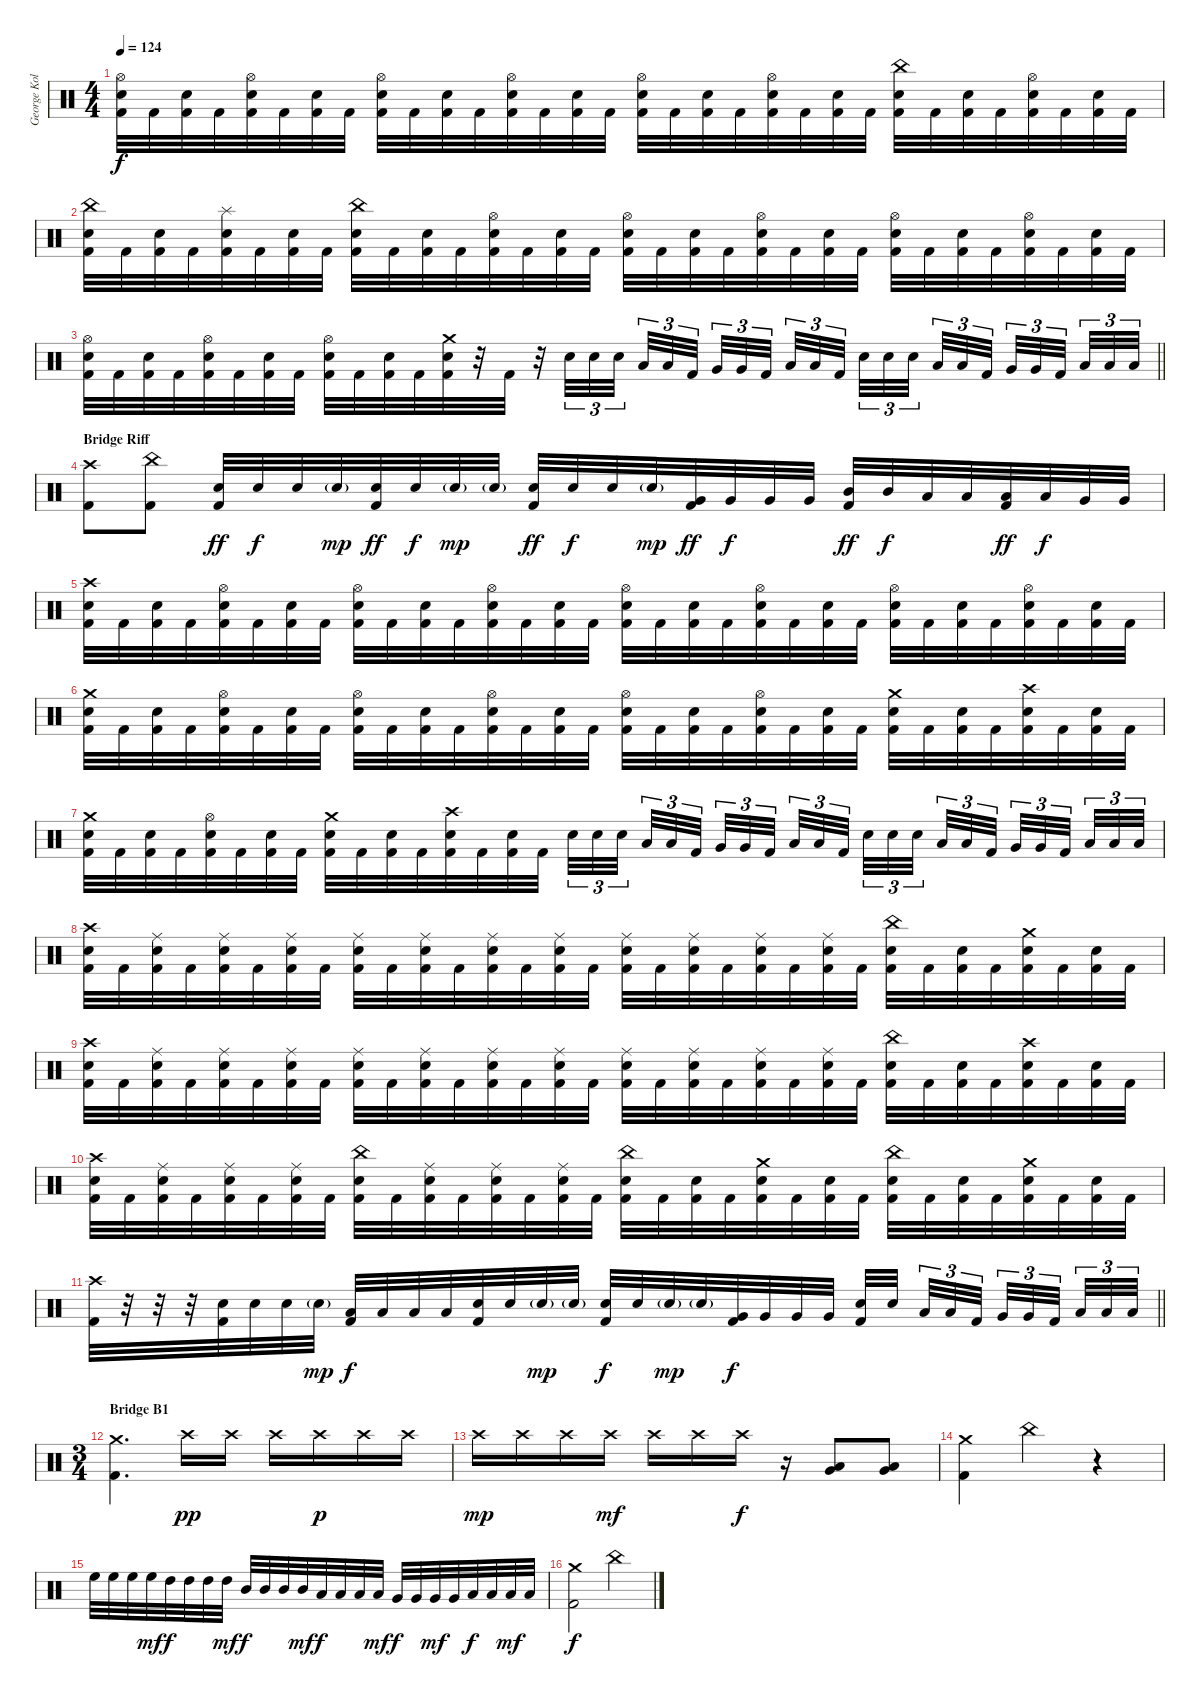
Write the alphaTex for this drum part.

\track ("George Kollias" "George Kol") {instrument percussion}
\staff {score}
\articulation defaults
\ts (4 4)
\tempo 124
\clef neutral
\ks c
("Hi-Hat (open)" "Electric Snare (hit)" "Kick (hit) 2").32{dy f} "Kick (hit) 2".32 ("Electric Snare (hit)" "Kick (hit) 2").32 "Kick (hit) 2".32 ("Hi-Hat (open)" "Electric Snare (hit)" "Kick (hit) 2").32 "Kick (hit) 2".32 ("Electric Snare (hit)" "Kick (hit) 2").32 "Kick (hit) 2".32 ("Hi-Hat (open)" "Electric Snare (hit)" "Kick (hit) 2").32 "Kick (hit) 2".32 ("Electric Snare (hit)" "Kick (hit) 2").32 "Kick (hit) 2".32 ("Hi-Hat (open)" "Electric Snare (hit)" "Kick (hit) 2").32 "Kick (hit) 2".32 ("Electric Snare (hit)" "Kick (hit) 2").32 "Kick (hit) 2".32 ("Hi-Hat (open)" "Electric Snare (hit)" "Kick (hit) 2").32 "Kick (hit) 2".32 ("Electric Snare (hit)" "Kick (hit) 2").32 "Kick (hit) 2".32 ("Hi-Hat (open)" "Electric Snare (hit)" "Kick (hit) 2").32 "Kick (hit) 2".32 ("Electric Snare (hit)" "Kick (hit) 2").32 "Kick (hit) 2".32 ("China (hit)" "Electric Snare (hit)" "Kick (hit) 2").32 "Kick (hit) 2".32 ("Electric Snare (hit)" "Kick (hit) 2").32 "Kick (hit) 2".32 ("Hi-Hat (open)" "Electric Snare (hit)" "Kick (hit) 2").32 "Kick (hit) 2".32 ("Electric Snare (hit)" "Kick (hit) 2").32 "Kick (hit) 2".32 |
("China (hit)" "Electric Snare (hit)" "Kick (hit) 2").32 "Kick (hit) 2".32 ("Electric Snare (hit)" "Kick (hit) 2").32 "Kick (hit) 2".32 ("Splash (hit)" "Electric Snare (hit)" "Kick (hit) 2").32 "Kick (hit) 2".32 ("Electric Snare (hit)" "Kick (hit) 2").32 "Kick (hit) 2".32 ("China (hit)" "Electric Snare (hit)" "Kick (hit) 2").32 "Kick (hit) 2".32 ("Electric Snare (hit)" "Kick (hit) 2").32 "Kick (hit) 2".32 ("Hi-Hat (open)" "Electric Snare (hit)" "Kick (hit) 2").32 "Kick (hit) 2".32 ("Electric Snare (hit)" "Kick (hit) 2").32 "Kick (hit) 2".32 ("Hi-Hat (open)" "Electric Snare (hit)" "Kick (hit) 2").32 "Kick (hit) 2".32 ("Electric Snare (hit)" "Kick (hit) 2").32 "Kick (hit) 2".32 ("Hi-Hat (open)" "Electric Snare (hit)" "Kick (hit) 2").32 "Kick (hit) 2".32 ("Electric Snare (hit)" "Kick (hit) 2").32 "Kick (hit) 2".32 ("Hi-Hat (open)" "Electric Snare (hit)" "Kick (hit) 2").32 "Kick (hit) 2".32 ("Electric Snare (hit)" "Kick (hit) 2").32 "Kick (hit) 2".32 ("Hi-Hat (open)" "Electric Snare (hit)" "Kick (hit) 2").32 "Kick (hit) 2".32 ("Electric Snare (hit)" "Kick (hit) 2").32 "Kick (hit) 2".32 |
\barLineRight lightlight
("Hi-Hat (open)" "Electric Snare (hit)" "Kick (hit) 2").32 "Kick (hit) 2".32 ("Electric Snare (hit)" "Kick (hit) 2").32 "Kick (hit) 2".32 ("Hi-Hat (open)" "Electric Snare (hit)" "Kick (hit) 2").32 "Kick (hit) 2".32 ("Electric Snare (hit)" "Kick (hit) 2").32 "Kick (hit) 2".32 ("Hi-Hat (open)" "Electric Snare (hit)" "Kick (hit) 2").32 "Kick (hit) 2".32 ("Electric Snare (hit)" "Kick (hit) 2").32 "Kick (hit) 2".32 ("Crash medium (hit)" "Electric Snare (hit)" "Kick (hit) 2").32 r.32 "Kick (hit) 2".32 r.32 "Electric Snare (hit)".32{tu (3 2)} "Electric Snare (hit)".32{tu (3 2)} "Electric Snare (hit)".32{tu (3 2) beam splitsecondary} "Low Tom (hit)".32{tu (3 2)} "Low Tom (hit)".32{tu (3 2)} "Kick (hit) 2".32{tu (3 2) beam splitsecondary} "Very Low Tom (hit)".32{tu (3 2)} "Very Low Tom (hit)".32{tu (3 2)} "Kick (hit) 2".32{tu (3 2) beam splitsecondary} "Low Floor Tom (hit)".32{tu (3 2)} "Low Floor Tom (hit)".32{tu (3 2)} "Kick (hit) 2".32{tu (3 2)} "Electric Snare (hit)".32{tu (3 2)} "Electric Snare (hit)".32{tu (3 2)} "Electric Snare (hit)".32{tu (3 2) beam splitsecondary} "Low Tom (hit)".32{tu (3 2)} "Low Tom (hit)".32{tu (3 2)} "Kick (hit) 2".32{tu (3 2) beam splitsecondary} "Very Low Tom (hit)".32{tu (3 2)} "Very Low Tom (hit)".32{tu (3 2)} "Kick (hit) 2".32{tu (3 2) beam splitsecondary} "Low Floor Tom (hit)".32{tu (3 2)} "Low Floor Tom (hit)".32{tu (3 2)} "Low Floor Tom (hit)".32{tu (3 2)} |
\section ("" "Bridge Riff ")
("Crash high (hit)" "Kick (hit) 2").8 ("China (hit)" "Kick (hit) 2").8 ("Electric Snare (hit)" "Kick (hit) 2").32{dy ff} "Electric Snare (hit)".32{dy f} "Electric Snare (hit)".32 "Electric Snare (hit)"{g}.32{dy mp} ("Electric Snare (hit)" "Kick (hit) 2").32{dy ff} "Electric Snare (hit)".32{dy f} "Electric Snare (hit)"{g}.32{dy mp} "Electric Snare (hit)"{g}.32 ("Electric Snare (hit)" "Kick (hit) 2").32{dy ff} "Electric Snare (hit)".32{dy f} "Electric Snare (hit)".32 "Electric Snare (hit)"{g}.32{dy mp} ("Very Low Tom (hit)" "Kick (hit) 2").32{dy ff} "Very Low Tom (hit)".32{dy f} "Very Low Tom (hit)".32 "Very Low Tom (hit)".32 ("Mid Tom (hit)" "Kick (hit) 2").32{dy ff} "Mid Tom (hit)".32{dy f} "Low Tom (hit)".32 "Low Tom (hit)".32 ("Low Tom (hit)" "Kick (hit) 2").32{dy ff} "Low Tom (hit)".32{dy f} "Very Low Tom (hit)".32 "Very Low Tom (hit)".32 |
("Crash high (hit)" "Electric Snare (hit)" "Kick (hit) 2").32 "Kick (hit) 2".32 ("Electric Snare (hit)" "Kick (hit) 2").32 "Kick (hit) 2".32 ("Hi-Hat (open)" "Electric Snare (hit)" "Kick (hit) 2").32 "Kick (hit) 2".32 ("Electric Snare (hit)" "Kick (hit) 2").32 "Kick (hit) 2".32 ("Hi-Hat (open)" "Electric Snare (hit)" "Kick (hit) 2").32 "Kick (hit) 2".32 ("Electric Snare (hit)" "Kick (hit) 2").32 "Kick (hit) 2".32 ("Hi-Hat (open)" "Electric Snare (hit)" "Kick (hit) 2").32 "Kick (hit) 2".32 ("Electric Snare (hit)" "Kick (hit) 2").32 "Kick (hit) 2".32 ("Hi-Hat (open)" "Electric Snare (hit)" "Kick (hit) 2").32 "Kick (hit) 2".32 ("Electric Snare (hit)" "Kick (hit) 2").32 "Kick (hit) 2".32 ("Hi-Hat (open)" "Electric Snare (hit)" "Kick (hit) 2").32 "Kick (hit) 2".32 ("Electric Snare (hit)" "Kick (hit) 2").32 "Kick (hit) 2".32 ("Hi-Hat (open)" "Electric Snare (hit)" "Kick (hit) 2").32 "Kick (hit) 2".32 ("Electric Snare (hit)" "Kick (hit) 2").32 "Kick (hit) 2".32 ("Hi-Hat (open)" "Electric Snare (hit)" "Kick (hit) 2").32 "Kick (hit) 2".32 ("Electric Snare (hit)" "Kick (hit) 2").32 "Kick (hit) 2".32 |
("Crash medium (hit)" "Electric Snare (hit)" "Kick (hit) 2").32 "Kick (hit) 2".32 ("Electric Snare (hit)" "Kick (hit) 2").32 "Kick (hit) 2".32 ("Hi-Hat (open)" "Electric Snare (hit)" "Kick (hit) 2").32 "Kick (hit) 2".32 ("Electric Snare (hit)" "Kick (hit) 2").32 "Kick (hit) 2".32 ("Hi-Hat (open)" "Electric Snare (hit)" "Kick (hit) 2").32 "Kick (hit) 2".32 ("Electric Snare (hit)" "Kick (hit) 2").32 "Kick (hit) 2".32 ("Hi-Hat (open)" "Electric Snare (hit)" "Kick (hit) 2").32 "Kick (hit) 2".32 ("Electric Snare (hit)" "Kick (hit) 2").32 "Kick (hit) 2".32 ("Hi-Hat (open)" "Electric Snare (hit)" "Kick (hit) 2").32 "Kick (hit) 2".32 ("Electric Snare (hit)" "Kick (hit) 2").32 "Kick (hit) 2".32 ("Hi-Hat (open)" "Electric Snare (hit)" "Kick (hit) 2").32 "Kick (hit) 2".32 ("Electric Snare (hit)" "Kick (hit) 2").32 "Kick (hit) 2".32 ("Crash medium (hit)" "Electric Snare (hit)" "Kick (hit) 2").32 "Kick (hit) 2".32 ("Electric Snare (hit)" "Kick (hit) 2").32 "Kick (hit) 2".32 ("Crash high (hit)" "Electric Snare (hit)" "Kick (hit) 2").32 "Kick (hit) 2".32 ("Electric Snare (hit)" "Kick (hit) 2").32 "Kick (hit) 2".32 |
("Crash medium (hit)" "Electric Snare (hit)" "Kick (hit) 2").32 "Kick (hit) 2".32 ("Electric Snare (hit)" "Kick (hit) 2").32 "Kick (hit) 2".32 ("Hi-Hat (open)" "Electric Snare (hit)" "Kick (hit) 2").32 "Kick (hit) 2".32 ("Electric Snare (hit)" "Kick (hit) 2").32 "Kick (hit) 2".32 ("Crash medium (hit)" "Electric Snare (hit)" "Kick (hit) 2").32 "Kick (hit) 2".32 ("Electric Snare (hit)" "Kick (hit) 2").32 "Kick (hit) 2".32 ("Crash high (hit)" "Electric Snare (hit)" "Kick (hit) 2").32 "Kick (hit) 2".32 ("Electric Snare (hit)" "Kick (hit) 2").32 "Kick (hit) 2".32 "Electric Snare (hit)".32{tu (3 2)} "Electric Snare (hit)".32{tu (3 2)} "Electric Snare (hit)".32{tu (3 2) beam splitsecondary} "Low Tom (hit)".32{tu (3 2)} "Low Tom (hit)".32{tu (3 2)} "Kick (hit) 2".32{tu (3 2) beam splitsecondary} "Very Low Tom (hit)".32{tu (3 2)} "Very Low Tom (hit)".32{tu (3 2)} "Kick (hit) 2".32{tu (3 2) beam splitsecondary} "Low Floor Tom (hit)".32{tu (3 2)} "Low Floor Tom (hit)".32{tu (3 2)} "Kick (hit) 2".32{tu (3 2)} "Electric Snare (hit)".32{tu (3 2)} "Electric Snare (hit)".32{tu (3 2)} "Electric Snare (hit)".32{tu (3 2) beam splitsecondary} "Low Tom (hit)".32{tu (3 2)} "Low Tom (hit)".32{tu (3 2)} "Kick (hit) 2".32{tu (3 2) beam splitsecondary} "Very Low Tom (hit)".32{tu (3 2)} "Very Low Tom (hit)".32{tu (3 2)} "Kick (hit) 2".32{tu (3 2) beam splitsecondary} "Low Floor Tom (hit)".32{tu (3 2)} "Low Floor Tom (hit)".32{tu (3 2)} "Low Floor Tom (hit)".32{tu (3 2)} |
("Crash high (hit)" "Electric Snare (hit)" "Kick (hit) 2").32 "Kick (hit) 2".32 ("Ride (middle)" "Electric Snare (hit)" "Kick (hit) 2").32 "Kick (hit) 2".32 ("Ride (middle)" "Electric Snare (hit)" "Kick (hit) 2").32 "Kick (hit) 2".32 ("Ride (middle)" "Electric Snare (hit)" "Kick (hit) 2").32 "Kick (hit) 2".32 ("Ride (middle)" "Electric Snare (hit)" "Kick (hit) 2").32 "Kick (hit) 2".32 ("Ride (middle)" "Electric Snare (hit)" "Kick (hit) 2").32 "Kick (hit) 2".32 ("Ride (middle)" "Electric Snare (hit)" "Kick (hit) 2").32 "Kick (hit) 2".32 ("Ride (middle)" "Electric Snare (hit)" "Kick (hit) 2").32 "Kick (hit) 2".32 ("Ride (middle)" "Electric Snare (hit)" "Kick (hit) 2").32 "Kick (hit) 2".32 ("Ride (middle)" "Electric Snare (hit)" "Kick (hit) 2").32 "Kick (hit) 2".32 ("Ride (middle)" "Electric Snare (hit)" "Kick (hit) 2").32 "Kick (hit) 2".32 ("Ride (middle)" "Electric Snare (hit)" "Kick (hit) 2").32 "Kick (hit) 2".32 ("China (hit)" "Electric Snare (hit)" "Kick (hit) 2").32 "Kick (hit) 2".32 ("Electric Snare (hit)" "Kick (hit) 2").32 "Kick (hit) 2".32 ("Crash medium (hit)" "Electric Snare (hit)" "Kick (hit) 2").32 "Kick (hit) 2".32 ("Electric Snare (hit)" "Kick (hit) 2").32 "Kick (hit) 2".32 |
("Crash high (hit)" "Electric Snare (hit)" "Kick (hit) 2").32 "Kick (hit) 2".32 ("Ride (middle)" "Electric Snare (hit)" "Kick (hit) 2").32 "Kick (hit) 2".32 ("Ride (middle)" "Electric Snare (hit)" "Kick (hit) 2").32 "Kick (hit) 2".32 ("Ride (middle)" "Electric Snare (hit)" "Kick (hit) 2").32 "Kick (hit) 2".32 ("Ride (middle)" "Electric Snare (hit)" "Kick (hit) 2").32 "Kick (hit) 2".32 ("Ride (middle)" "Electric Snare (hit)" "Kick (hit) 2").32 "Kick (hit) 2".32 ("Ride (middle)" "Electric Snare (hit)" "Kick (hit) 2").32 "Kick (hit) 2".32 ("Ride (middle)" "Electric Snare (hit)" "Kick (hit) 2").32 "Kick (hit) 2".32 ("Ride (middle)" "Electric Snare (hit)" "Kick (hit) 2").32 "Kick (hit) 2".32 ("Ride (middle)" "Electric Snare (hit)" "Kick (hit) 2").32 "Kick (hit) 2".32 ("Ride (middle)" "Electric Snare (hit)" "Kick (hit) 2").32 "Kick (hit) 2".32 ("Ride (middle)" "Electric Snare (hit)" "Kick (hit) 2").32 "Kick (hit) 2".32 ("China (hit)" "Electric Snare (hit)" "Kick (hit) 2").32 "Kick (hit) 2".32 ("Electric Snare (hit)" "Kick (hit) 2").32 "Kick (hit) 2".32 ("Crash high (hit)" "Electric Snare (hit)" "Kick (hit) 2").32 "Kick (hit) 2".32 ("Electric Snare (hit)" "Kick (hit) 2").32 "Kick (hit) 2".32 |
("Crash high (hit)" "Electric Snare (hit)" "Kick (hit) 2").32 "Kick (hit) 2".32 ("Ride (middle)" "Electric Snare (hit)" "Kick (hit) 2").32 "Kick (hit) 2".32 ("Ride (middle)" "Electric Snare (hit)" "Kick (hit) 2").32 "Kick (hit) 2".32 ("Ride (middle)" "Electric Snare (hit)" "Kick (hit) 2").32 "Kick (hit) 2".32 ("China (hit)" "Electric Snare (hit)" "Kick (hit) 2").32 "Kick (hit) 2".32 ("Ride (middle)" "Electric Snare (hit)" "Kick (hit) 2").32 "Kick (hit) 2".32 ("Ride (middle)" "Electric Snare (hit)" "Kick (hit) 2").32 "Kick (hit) 2".32 ("Ride (middle)" "Electric Snare (hit)" "Kick (hit) 2").32 "Kick (hit) 2".32 ("China (hit)" "Electric Snare (hit)" "Kick (hit) 2").32 "Kick (hit) 2".32 ("Electric Snare (hit)" "Kick (hit) 2").32 "Kick (hit) 2".32 ("Crash medium (hit)" "Electric Snare (hit)" "Kick (hit) 2").32 "Kick (hit) 2".32 ("Electric Snare (hit)" "Kick (hit) 2").32 "Kick (hit) 2".32 ("China (hit)" "Electric Snare (hit)" "Kick (hit) 2").32 "Kick (hit) 2".32 ("Electric Snare (hit)" "Kick (hit) 2").32 "Kick (hit) 2".32 ("Crash medium (hit)" "Electric Snare (hit)" "Kick (hit) 2").32 "Kick (hit) 2".32 ("Electric Snare (hit)" "Kick (hit) 2").32 "Kick (hit) 2".32 |
\barLineRight lightlight
("Crash high (hit)" "Kick (hit) 2").32 r.32 r.32 r.32 ("Electric Snare (hit)" "Kick (hit) 2").32 "Electric Snare (hit)".32 "Electric Snare (hit)".32 "Electric Snare (hit)"{g}.32{dy mp} ("Low Tom (hit)" "Kick (hit) 2").32{dy f} "Low Tom (hit)".32 "Low Tom (hit)".32 "Low Tom (hit)".32 ("Electric Snare (hit)" "Kick (hit) 2").32 "Electric Snare (hit)".32 "Electric Snare (hit)"{g}.32{dy mp} "Electric Snare (hit)"{g}.32 ("Electric Snare (hit)" "Kick (hit) 2").32{dy f} "Electric Snare (hit)".32 "Electric Snare (hit)"{g}.32{dy mp} "Electric Snare (hit)"{g}.32 ("Very Low Tom (hit)" "Kick (hit) 2").32{dy f} "Very Low Tom (hit)".32 "Very Low Tom (hit)".32 "Very Low Tom (hit)".32 ("Electric Snare (hit)" "Kick (hit) 2").32 "Electric Snare (hit)".32{beam splitsecondary} "Low Tom (hit)".32{tu (3 2)} "Low Tom (hit)".32{tu (3 2)} "Kick (hit) 2".32{tu (3 2) beam splitsecondary} "Very Low Tom (hit)".32{tu (3 2)} "Very Low Tom (hit)".32{tu (3 2)} "Kick (hit) 2".32{tu (3 2) beam splitsecondary} "Low Floor Tom (hit)".32{tu (3 2)} "Low Floor Tom (hit)".32{tu (3 2)} "Low Floor Tom (hit)".32{tu (3 2)} |
\ts (3 4)
\section ("" "Bridge B1")
("Crash medium (hit)" "Kick (hit) 2").4{d} "Crash high (hit)".16{dy pp} "Crash high (hit)".16 "Crash high (hit)".16 "Crash high (hit)".16{dy p} "Crash high (hit)".16 "Crash high (hit)".16 |
"Crash high (hit)".16{dy mp} "Crash high (hit)".16 "Crash high (hit)".16 "Crash high (hit)".16{dy mf} "Crash high (hit)".16 "Crash high (hit)".16 "Crash high (hit)".16{dy f} r.16 ("Very Low Tom (hit)" "Low Floor Tom (hit)").8 ("Very Low Tom (hit)" "Low Floor Tom (hit)").8 |
("Crash medium (hit)" "Kick (hit) 2").4 "China (hit)".4 r.4 |
"High Floor Tom (hit)".32 "High Floor Tom (hit)".32 "High Floor Tom (hit)".32 "High Floor Tom (hit)".32{dy mf} "High Tom (hit)".32{dy f} "High Tom (hit)".32 "High Tom (hit)".32 "High Tom (hit)".32{dy mf} "Mid Tom (hit)".32{dy f} "Mid Tom (hit)".32 "Mid Tom (hit)".32 "Mid Tom (hit)".32{dy mf} "Low Tom (hit)".32{dy f} "Low Tom (hit)".32 "Low Tom (hit)".32 "Low Tom (hit)".32{dy mf} "Very Low Tom (hit)".32{dy f} "Very Low Tom (hit)".32 "Very Low Tom (hit)".32{dy mf} "Very Low Tom (hit)".32 "Low Floor Tom (hit)".32{dy f} "Low Floor Tom (hit)".32 "Low Floor Tom (hit)".32{dy mf} "Low Floor Tom (hit)".32 |
("Crash medium (hit)" "Kick (hit) 2").2{dy f} "China (hit)".4
